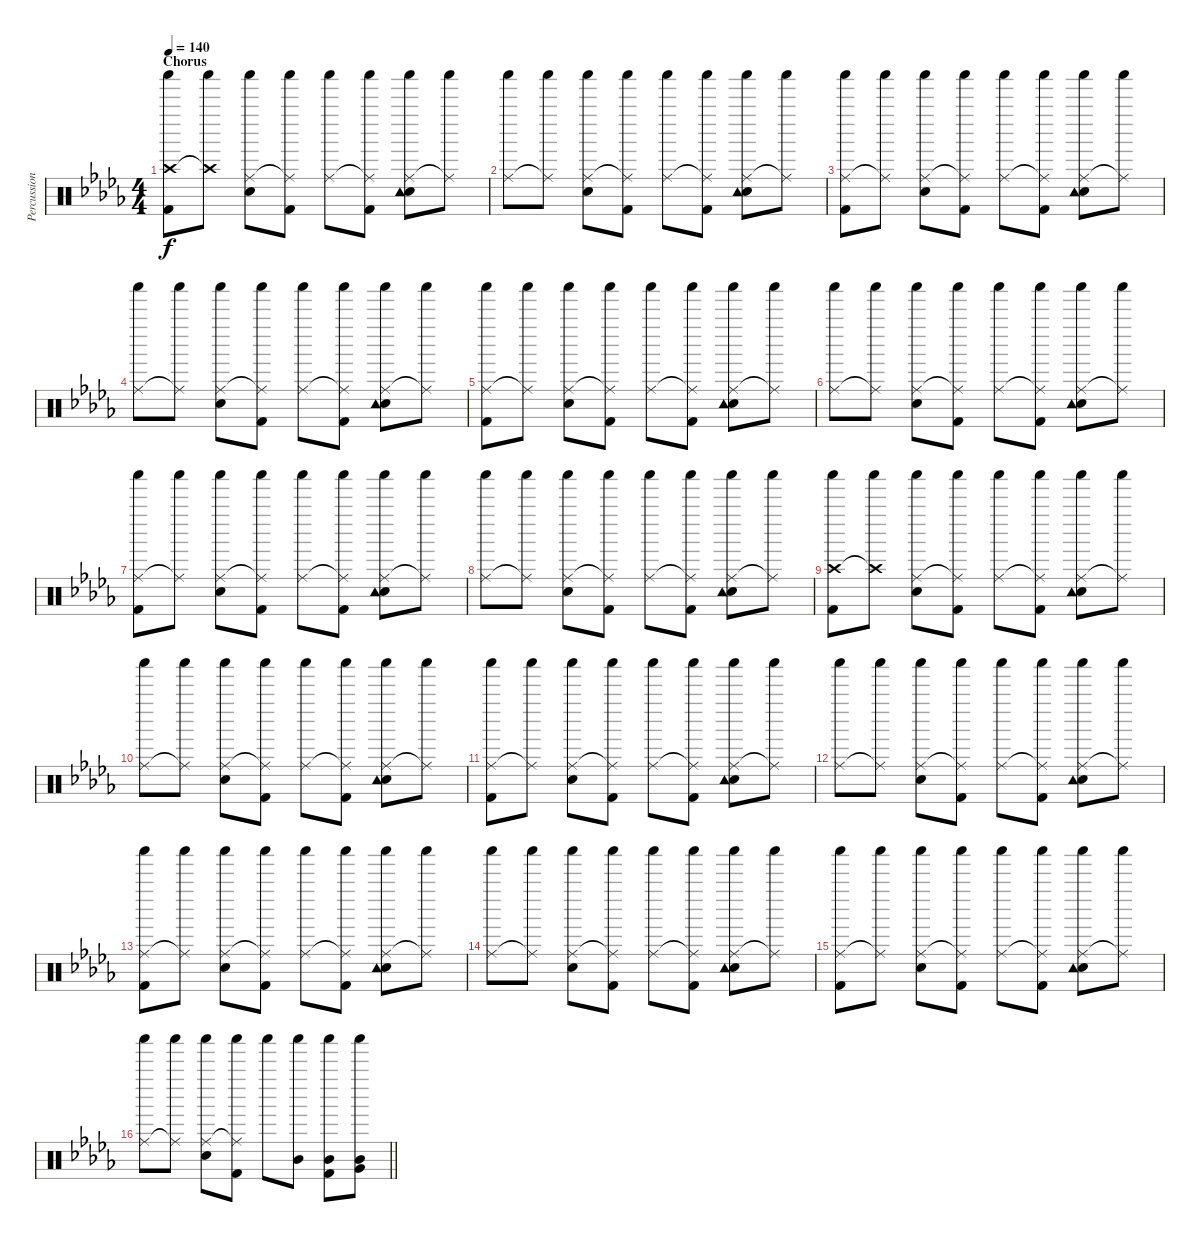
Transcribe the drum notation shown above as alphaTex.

\track ("Percussion" "Percussion") {instrument percussion}
\staff {score}
\articulation defaults
\ts (4 4)
\section ("" "Chorus")
\tempo 140
\clef neutral
\ks db
("Crash high (hit)" "Shaker (hit)" "Kick (hit) 2").8{dy f} ("Crash high (hit)"{t} "Shaker (hit)").8 ("Ride (middle)" "Shaker (hit)" "Snare (hit) 2").8 ("Ride (middle)"{t} "Shaker (hit)" "Kick (hit) 2").8 ("Ride (middle)" "Shaker (hit)").8 ("Ride (middle)"{t} "Shaker (hit)" "Kick (hit) 2").8 ("Ride (middle)" "Shaker (hit)" "Snare (hit) 2" "Tambourine (hit)").8 ("Ride (middle)"{t} "Shaker (hit)").8 |
("Ride (middle)" "Shaker (hit)").8 ("Ride (middle)"{t} "Shaker (hit)").8 ("Ride (middle)" "Shaker (hit)" "Snare (hit) 2").8 ("Ride (middle)"{t} "Shaker (hit)" "Kick (hit) 2").8 ("Ride (middle)" "Shaker (hit)").8 ("Ride (middle)"{t} "Shaker (hit)" "Kick (hit) 2").8 ("Ride (middle)" "Shaker (hit)" "Snare (hit) 2" "Tambourine (hit)").8 ("Ride (middle)"{t} "Shaker (hit)").8 |
("Ride (middle)" "Shaker (hit)" "Kick (hit) 2").8 ("Ride (middle)"{t} "Shaker (hit)").8 ("Ride (middle)" "Shaker (hit)" "Snare (hit) 2").8 ("Ride (middle)"{t} "Shaker (hit)" "Kick (hit) 2").8 ("Ride (middle)" "Shaker (hit)").8 ("Ride (middle)"{t} "Shaker (hit)" "Kick (hit) 2").8 ("Ride (middle)" "Shaker (hit)" "Snare (hit) 2" "Tambourine (hit)").8 ("Ride (middle)"{t} "Shaker (hit)").8 |
("Ride (middle)" "Shaker (hit)").8 ("Ride (middle)"{t} "Shaker (hit)").8 ("Ride (middle)" "Shaker (hit)" "Snare (hit) 2").8 ("Ride (middle)"{t} "Shaker (hit)" "Kick (hit) 2").8 ("Ride (middle)" "Shaker (hit)").8 ("Ride (middle)"{t} "Shaker (hit)" "Kick (hit) 2").8 ("Ride (middle)" "Shaker (hit)" "Snare (hit) 2" "Tambourine (hit)").8 ("Ride (middle)"{t} "Shaker (hit)").8 |
("Ride (middle)" "Shaker (hit)" "Kick (hit) 2").8 ("Ride (middle)"{t} "Shaker (hit)").8 ("Ride (middle)" "Shaker (hit)" "Snare (hit) 2").8 ("Ride (middle)"{t} "Shaker (hit)" "Kick (hit) 2").8 ("Ride (middle)" "Shaker (hit)").8 ("Ride (middle)"{t} "Shaker (hit)" "Kick (hit) 2").8 ("Ride (middle)" "Shaker (hit)" "Snare (hit) 2" "Tambourine (hit)").8 ("Ride (middle)"{t} "Shaker (hit)").8 |
("Ride (middle)" "Shaker (hit)").8 ("Ride (middle)"{t} "Shaker (hit)").8 ("Ride (middle)" "Shaker (hit)" "Snare (hit) 2").8 ("Ride (middle)"{t} "Shaker (hit)" "Kick (hit) 2").8 ("Ride (middle)" "Shaker (hit)").8 ("Ride (middle)"{t} "Shaker (hit)" "Kick (hit) 2").8 ("Ride (middle)" "Shaker (hit)" "Snare (hit) 2" "Tambourine (hit)").8 ("Ride (middle)"{t} "Shaker (hit)").8 |
("Ride (middle)" "Shaker (hit)" "Kick (hit) 2").8 ("Ride (middle)"{t} "Shaker (hit)").8 ("Ride (middle)" "Shaker (hit)" "Snare (hit) 2").8 ("Ride (middle)"{t} "Shaker (hit)" "Kick (hit) 2").8 ("Ride (middle)" "Shaker (hit)").8 ("Ride (middle)"{t} "Shaker (hit)" "Kick (hit) 2").8 ("Ride (middle)" "Shaker (hit)" "Snare (hit) 2" "Tambourine (hit)").8 ("Ride (middle)"{t} "Shaker (hit)").8 |
("Ride (middle)" "Shaker (hit)").8 ("Ride (middle)"{t} "Shaker (hit)").8 ("Ride (middle)" "Shaker (hit)" "Snare (hit) 2").8 ("Ride (middle)"{t} "Shaker (hit)" "Kick (hit) 2").8 ("Ride (middle)" "Shaker (hit)").8 ("Ride (middle)"{t} "Shaker (hit)" "Kick (hit) 2").8 ("Ride (middle)" "Shaker (hit)" "Snare (hit) 2" "Tambourine (hit)").8 ("Ride (middle)"{t} "Shaker (hit)").8 |
("Crash high (hit)" "Shaker (hit)" "Kick (hit) 2").8 ("Crash high (hit)"{t} "Shaker (hit)").8 ("Ride (middle)" "Shaker (hit)" "Snare (hit) 2").8 ("Ride (middle)"{t} "Shaker (hit)" "Kick (hit) 2").8 ("Ride (middle)" "Shaker (hit)").8 ("Ride (middle)"{t} "Shaker (hit)" "Kick (hit) 2").8 ("Ride (middle)" "Shaker (hit)" "Snare (hit) 2" "Tambourine (hit)").8 ("Ride (middle)"{t} "Shaker (hit)").8 |
("Ride (middle)" "Shaker (hit)").8 ("Ride (middle)"{t} "Shaker (hit)").8 ("Ride (middle)" "Shaker (hit)" "Snare (hit) 2").8 ("Ride (middle)"{t} "Shaker (hit)" "Kick (hit) 2").8 ("Ride (middle)" "Shaker (hit)").8 ("Ride (middle)"{t} "Shaker (hit)" "Kick (hit) 2").8 ("Ride (middle)" "Shaker (hit)" "Snare (hit) 2" "Tambourine (hit)").8 ("Ride (middle)"{t} "Shaker (hit)").8 |
("Ride (middle)" "Shaker (hit)" "Kick (hit) 2").8 ("Ride (middle)"{t} "Shaker (hit)").8 ("Ride (middle)" "Shaker (hit)" "Snare (hit) 2").8 ("Ride (middle)"{t} "Shaker (hit)" "Kick (hit) 2").8 ("Ride (middle)" "Shaker (hit)").8 ("Ride (middle)"{t} "Shaker (hit)" "Kick (hit) 2").8 ("Ride (middle)" "Shaker (hit)" "Snare (hit) 2" "Tambourine (hit)").8 ("Ride (middle)"{t} "Shaker (hit)").8 |
("Ride (middle)" "Shaker (hit)").8 ("Ride (middle)"{t} "Shaker (hit)").8 ("Ride (middle)" "Shaker (hit)" "Snare (hit) 2").8 ("Ride (middle)"{t} "Shaker (hit)" "Kick (hit) 2").8 ("Ride (middle)" "Shaker (hit)").8 ("Ride (middle)"{t} "Shaker (hit)" "Kick (hit) 2").8 ("Ride (middle)" "Shaker (hit)" "Snare (hit) 2" "Tambourine (hit)").8 ("Ride (middle)"{t} "Shaker (hit)").8 |
("Ride (middle)" "Shaker (hit)" "Kick (hit) 2").8 ("Ride (middle)"{t} "Shaker (hit)").8 ("Ride (middle)" "Shaker (hit)" "Snare (hit) 2").8 ("Ride (middle)"{t} "Shaker (hit)" "Kick (hit) 2").8 ("Ride (middle)" "Shaker (hit)").8 ("Ride (middle)"{t} "Shaker (hit)" "Kick (hit) 2").8 ("Ride (middle)" "Shaker (hit)" "Snare (hit) 2" "Tambourine (hit)").8 ("Ride (middle)"{t} "Shaker (hit)").8 |
("Ride (middle)" "Shaker (hit)").8 ("Ride (middle)"{t} "Shaker (hit)").8 ("Ride (middle)" "Shaker (hit)" "Snare (hit) 2").8 ("Ride (middle)"{t} "Shaker (hit)" "Kick (hit) 2").8 ("Ride (middle)" "Shaker (hit)").8 ("Ride (middle)"{t} "Shaker (hit)" "Kick (hit) 2").8 ("Ride (middle)" "Shaker (hit)" "Snare (hit) 2" "Tambourine (hit)").8 ("Ride (middle)"{t} "Shaker (hit)").8 |
("Ride (middle)" "Shaker (hit)" "Kick (hit) 2").8 ("Ride (middle)"{t} "Shaker (hit)").8 ("Ride (middle)" "Shaker (hit)" "Snare (hit) 2").8 ("Ride (middle)"{t} "Shaker (hit)" "Kick (hit) 2").8 ("Ride (middle)" "Shaker (hit)").8 ("Ride (middle)"{t} "Shaker (hit)" "Kick (hit) 2").8 ("Ride (middle)" "Shaker (hit)" "Snare (hit) 2" "Tambourine (hit)").8 ("Ride (middle)"{t} "Shaker (hit)").8 |
\barLineRight lightlight
("Ride (middle)" "Shaker (hit)").8 ("Ride (middle)"{t} "Shaker (hit)").8 ("Ride (middle)" "Shaker (hit)" "Snare (hit) 2").8 ("Ride (middle)"{t} "Shaker (hit)" "Kick (hit) 2").8 "Shaker (hit)".8 ("Shaker (hit)" "Mid Tom (hit)").8 ("Shaker (hit)" "Mid Tom (hit)" "Kick (hit) 2").8 ("Shaker (hit)" "Very Low Tom (hit)" "Mid Tom (hit)").8
